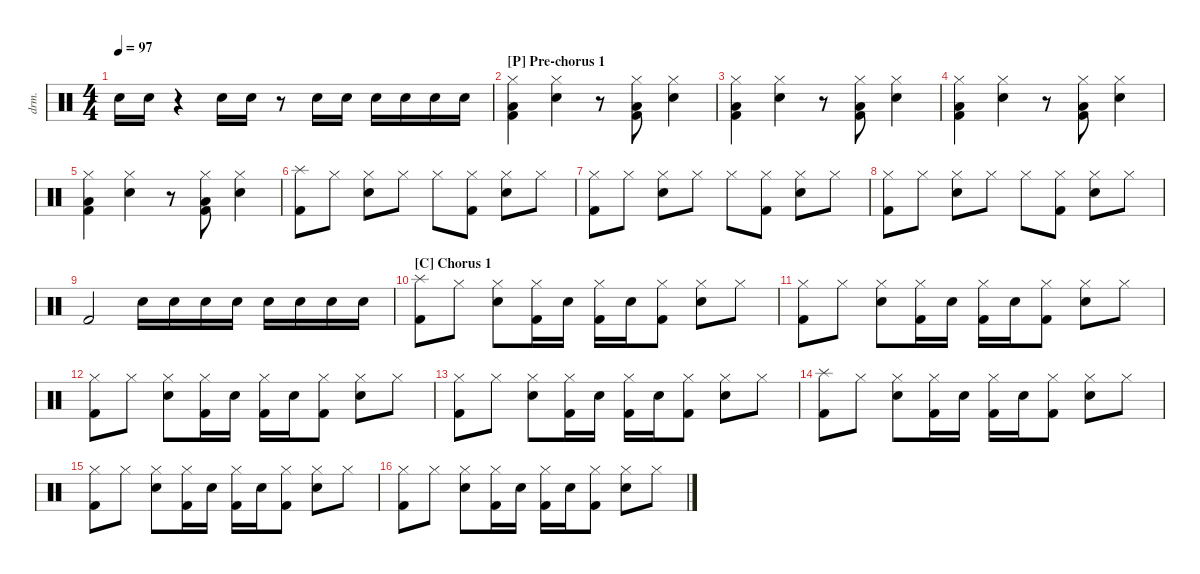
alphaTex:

\defaultSystemsLayout 4
\hideDynamics
\bracketExtendMode nobrackets
\track ("Drumkit" "drm.") {instrument percussion}
\staff {score}
\articulation defaults
\ts (4 4)
\tempo 97
\clef neutral
\ks c "Snare (hit) 2".16{dy mf beam Down} "Snare (hit) 2".16{beam Down}
r.4{beam Down} "Snare (hit) 2".16{beam Down} "Snare (hit) 2".16{beam Down} r.8{beam Down} "Snare (hit) 2".16{beam Down} "Snare (hit) 2".16{beam Down} "Snare (hit) 2".16{beam Down} "Snare (hit) 2".16{beam Down} "Snare (hit) 2".16{beam Down} "Snare (hit) 2".16{beam Down} |
\section ("P" "Pre-chorus 1")
("Kick (hit) 2" "Hi-Hat (closed)" "Low Tom (hit)").4{beam Down} ("Hi-Hat (closed)" "Snare (hit) 2").4{beam Down} r.8{beam Down} ("Kick (hit) 2" "Hi-Hat (closed)" "Low Tom (hit)").8{beam Down} ("Hi-Hat (closed)" "Snare (hit) 2").4{beam Down} |
("Kick (hit) 2" "Hi-Hat (closed)" "Low Tom (hit)").4{beam Down} ("Hi-Hat (closed)" "Snare (hit) 2").4{beam Down} r.8{beam Down} ("Kick (hit) 2" "Hi-Hat (closed)" "Low Tom (hit)").8{beam Down} ("Hi-Hat (closed)" "Snare (hit) 2").4{beam Down} |
("Kick (hit) 2" "Hi-Hat (closed)" "Low Tom (hit)").4{beam Down} ("Hi-Hat (closed)" "Snare (hit) 2").4{beam Down} r.8{beam Down} ("Kick (hit) 2" "Hi-Hat (closed)" "Low Tom (hit)").8{beam Down} ("Hi-Hat (closed)" "Snare (hit) 2").4{beam Down} |
("Kick (hit) 2" "Hi-Hat (closed)" "Low Tom (hit)").4{beam Down} ("Hi-Hat (closed)" "Snare (hit) 2").4{beam Down} r.8{beam Down} ("Kick (hit) 2" "Hi-Hat (closed)" "Low Tom (hit)").8{beam Down} ("Hi-Hat (closed)" "Snare (hit) 2").4{beam Down} |
("Kick (hit) 2" "Splash (hit)").8{beam Down} "Hi-Hat (closed)".8{beam Down} ("Hi-Hat (closed)" "Snare (hit) 2").8{beam Down} "Hi-Hat (closed)".8{beam Down} "Hi-Hat (closed)".8{beam Down} ("Kick (hit) 2" "Hi-Hat (closed)").8{beam Down} ("Hi-Hat (closed)" "Snare (hit) 2").8{beam Down} "Hi-Hat (closed)".8{beam Down} |
("Kick (hit) 2" "Hi-Hat (closed)").8{beam Down} "Hi-Hat (closed)".8{beam Down} ("Hi-Hat (closed)" "Snare (hit) 2").8{beam Down} "Hi-Hat (closed)".8{beam Down} "Hi-Hat (closed)".8{beam Down} ("Kick (hit) 2" "Hi-Hat (closed)").8{beam Down} ("Hi-Hat (closed)" "Snare (hit) 2").8{beam Down} "Hi-Hat (closed)".8{beam Down} |
("Kick (hit) 2" "Hi-Hat (closed)").8{beam Down} "Hi-Hat (closed)".8{beam Down} ("Hi-Hat (closed)" "Snare (hit) 2").8{beam Down} "Hi-Hat (closed)".8{beam Down} "Hi-Hat (closed)".8{beam Down} ("Kick (hit) 2" "Hi-Hat (closed)").8{beam Down} ("Hi-Hat (closed)" "Snare (hit) 2").8{beam Down} "Hi-Hat (closed)".8{beam Down} |
"Kick (hit) 2".2{beam Up} "Snare (hit) 2".16{beam Down} "Snare (hit) 2".16{beam Down} "Snare (hit) 2".16{beam Down} "Snare (hit) 2".16{beam Down} "Snare (hit) 2".16{beam Down} "Snare (hit) 2".16{beam Down} "Snare (hit) 2".16{beam Down} "Snare (hit) 2".16{beam Down} |
\section ("C" "Chorus 1")
("Splash (hit)" "Kick (hit) 2").8{beam Down} "Hi-Hat (closed)".8{beam Down} ("Hi-Hat (closed)" "Snare (hit) 2").8{beam Down} ("Hi-Hat (closed)" "Kick (hit) 2").16{beam Down} "Snare (hit) 2".16{beam Down} ("Hi-Hat (closed)" "Kick (hit) 2").16{beam Down} "Snare (hit) 2".16{beam Down} ("Kick (hit) 2" "Hi-Hat (closed)").8{beam Down} ("Snare (hit) 2" "Hi-Hat (closed)").8{beam Down} "Hi-Hat (closed)".8{beam Down} |
("Kick (hit) 2" "Hi-Hat (closed)").8{beam Down} "Hi-Hat (closed)".8{beam Down} ("Hi-Hat (closed)" "Snare (hit) 2").8{beam Down} ("Hi-Hat (closed)" "Kick (hit) 2").16{beam Down} "Snare (hit) 2".16{beam Down} ("Hi-Hat (closed)" "Kick (hit) 2").16{beam Down} "Snare (hit) 2".16{beam Down} ("Kick (hit) 2" "Hi-Hat (closed)").8{beam Down} ("Snare (hit) 2" "Hi-Hat (closed)").8{beam Down} "Hi-Hat (closed)".8{beam Down} |
("Kick (hit) 2" "Hi-Hat (closed)").8{beam Down} "Hi-Hat (closed)".8{beam Down} ("Hi-Hat (closed)" "Snare (hit) 2").8{beam Down} ("Hi-Hat (closed)" "Kick (hit) 2").16{beam Down} "Snare (hit) 2".16{beam Down} ("Hi-Hat (closed)" "Kick (hit) 2").16{beam Down} "Snare (hit) 2".16{beam Down} ("Kick (hit) 2" "Hi-Hat (closed)").8{beam Down} ("Snare (hit) 2" "Hi-Hat (closed)").8{beam Down} "Hi-Hat (closed)".8{beam Down} |
("Kick (hit) 2" "Hi-Hat (closed)").8{beam Down} "Hi-Hat (closed)".8{beam Down} ("Hi-Hat (closed)" "Snare (hit) 2").8{beam Down} ("Hi-Hat (closed)" "Kick (hit) 2").16{beam Down} "Snare (hit) 2".16{beam Down} ("Hi-Hat (closed)" "Kick (hit) 2").16{beam Down} "Snare (hit) 2".16{beam Down} ("Kick (hit) 2" "Hi-Hat (closed)").8{beam Down} ("Snare (hit) 2" "Hi-Hat (closed)").8{beam Down} "Hi-Hat (closed)".8{beam Down} |
("Splash (hit)" "Kick (hit) 2").8{beam Down} "Hi-Hat (closed)".8{beam Down} ("Hi-Hat (closed)" "Snare (hit) 2").8{beam Down} ("Hi-Hat (closed)" "Kick (hit) 2").16{beam Down} "Snare (hit) 2".16{beam Down} ("Hi-Hat (closed)" "Kick (hit) 2").16{beam Down} "Snare (hit) 2".16{beam Down} ("Kick (hit) 2" "Hi-Hat (closed)").8{beam Down} ("Snare (hit) 2" "Hi-Hat (closed)").8{beam Down} "Hi-Hat (closed)".8{beam Down} |
("Kick (hit) 2" "Hi-Hat (closed)").8{beam Down} "Hi-Hat (closed)".8{beam Down} ("Hi-Hat (closed)" "Snare (hit) 2").8{beam Down} ("Hi-Hat (closed)" "Kick (hit) 2").16{beam Down} "Snare (hit) 2".16{beam Down} ("Hi-Hat (closed)" "Kick (hit) 2").16{beam Down} "Snare (hit) 2".16{beam Down} ("Kick (hit) 2" "Hi-Hat (closed)").8{beam Down} ("Snare (hit) 2" "Hi-Hat (closed)").8{beam Down} "Hi-Hat (closed)".8{beam Down} |
("Kick (hit) 2" "Hi-Hat (closed)").8{beam Down} "Hi-Hat (closed)".8{beam Down} ("Hi-Hat (closed)" "Snare (hit) 2").8{beam Down} ("Hi-Hat (closed)" "Kick (hit) 2").16{beam Down} "Snare (hit) 2".16{beam Down} ("Hi-Hat (closed)" "Kick (hit) 2").16{beam Down} "Snare (hit) 2".16{beam Down} ("Kick (hit) 2" "Hi-Hat (closed)").8{beam Down} ("Snare (hit) 2" "Hi-Hat (closed)").8{beam Down} "Hi-Hat (closed)".8{beam Down}
